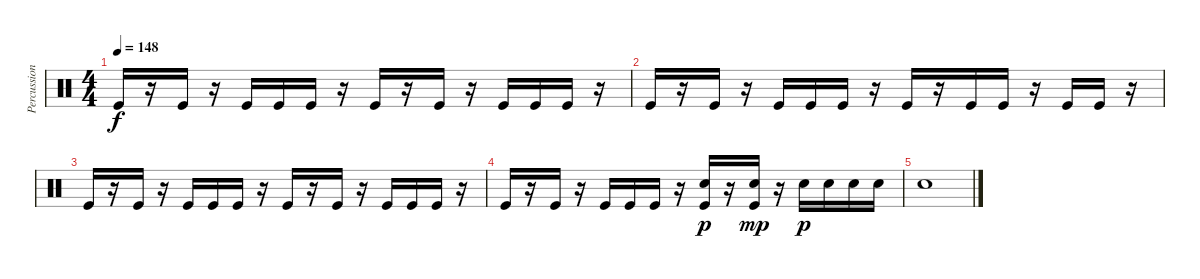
\track ("Percussion" "Percussion") {instrument percussion}
\staff {score}
\articulation defaults
\ts (4 4)
\tempo 148
\clef neutral
\ks c "Kick (hit)".16{dy f}
r.16 "Kick (hit)".16 r.16 "Kick (hit)".16 "Kick (hit)".16 "Kick (hit)".16 r.16 "Kick (hit)".16 r.16 "Kick (hit)".16 r.16 "Kick (hit)".16 "Kick (hit)".16 "Kick (hit)".16 r.16 |
"Kick (hit)".16 r.16 "Kick (hit)".16 r.16 "Kick (hit)".16 "Kick (hit)".16 "Kick (hit)".16 r.16 "Kick (hit)".16 r.16 "Kick (hit)".16 "Kick (hit)".16 r.16 "Kick (hit)".16 "Kick (hit)".16 r.16 |
"Kick (hit)".16 r.16 "Kick (hit)".16 r.16 "Kick (hit)".16 "Kick (hit)".16 "Kick (hit)".16 r.16 "Kick (hit)".16 r.16 "Kick (hit)".16 r.16 "Kick (hit)".16 "Kick (hit)".16 "Kick (hit)".16 r.16 |
"Kick (hit)".16 r.16 "Kick (hit)".16 r.16 "Kick (hit)".16 "Kick (hit)".16 "Kick (hit)".16 r.16 ("Electric Snare (hit)" "Kick (hit)").16{dy p} r.16 ("Electric Snare (hit)" "Kick (hit)").16{dy mp} r.16 "Electric Snare (hit)".16{dy p} "Electric Snare (hit)".16 "Electric Snare (hit)".16 "Electric Snare (hit)".16 |
"Electric Snare (hit)".1
